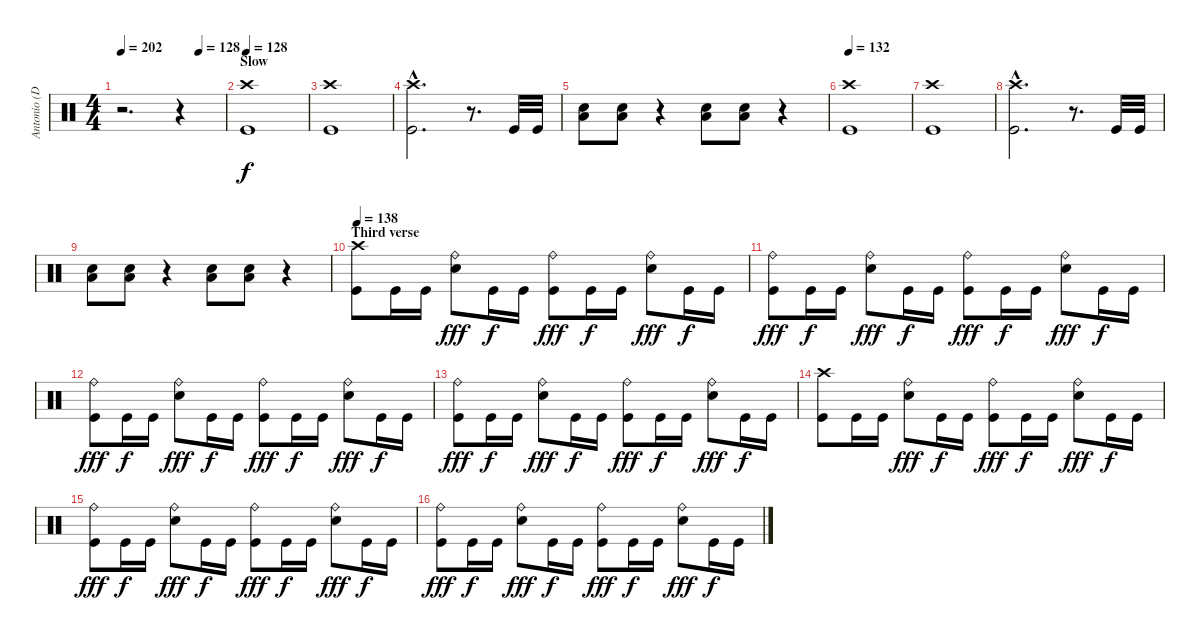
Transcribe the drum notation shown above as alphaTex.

\track ("Antonio (Drums)" "Antonio (D") {instrument percussion}
\staff {score}
\articulation defaults
\ts (4 4)
\tempo 202
\tempo (128 0.75)
\clef neutral
\ks c
r.2{d dy f} r.4 |
\section ("" "Slow")
\tempo 128
("Crash high (hit)" "Kick (hit)").1 |
("Crash high (hit)" "Kick (hit)").1 |
("Crash high (hit)"{hac} "Kick (hit)"{hac}).2{d} r.8{d} "Kick (hit)".32 "Kick (hit)".32 |
("Electric Snare (hit)" "Low Tom (hit)").8{bu 120} ("Electric Snare (hit)" "Low Tom (hit)").8{bu 120} r.4 ("Electric Snare (hit)" "Low Tom (hit)").8{bu 120} ("Electric Snare (hit)" "Low Tom (hit)").8{bu 120} r.4 |
\tempo 132
("Crash high (hit)" "Kick (hit)").1 |
("Crash high (hit)" "Kick (hit)").1 |
("Crash high (hit)"{hac} "Kick (hit)"{hac}).2{d} r.8{d} "Kick (hit)".32 "Kick (hit)".32 |
("Electric Snare (hit)" "Low Tom (hit)").8{bu 120} ("Electric Snare (hit)" "Low Tom (hit)").8{bu 120} r.4 ("Electric Snare (hit)" "Low Tom (hit)").8{bu 120} ("Electric Snare (hit)" "Low Tom (hit)").8{bu 120} r.4 |
\section ("" "Third verse")
\tempo 138
("Crash high (hit)" "Kick (hit)").8 "Kick (hit)".16 "Kick (hit)".16 ("Ride (bell)" "Electric Snare (hit)").8{dy fff} "Kick (hit)".16{dy f} "Kick (hit)".16 ("Ride (bell)" "Kick (hit)").8{dy fff} "Kick (hit)".16{dy f} "Kick (hit)".16 ("Ride (bell)" "Electric Snare (hit)").8{dy fff} "Kick (hit)".16{dy f} "Kick (hit)".16 |
("Ride (bell)" "Kick (hit)").8{dy fff} "Kick (hit)".16{dy f} "Kick (hit)".16 ("Ride (bell)" "Electric Snare (hit)").8{dy fff} "Kick (hit)".16{dy f} "Kick (hit)".16 ("Ride (bell)" "Kick (hit)").8{dy fff} "Kick (hit)".16{dy f} "Kick (hit)".16 ("Ride (bell)" "Electric Snare (hit)").8{dy fff} "Kick (hit)".16{dy f} "Kick (hit)".16 |
("Ride (bell)" "Kick (hit)").8{dy fff} "Kick (hit)".16{dy f} "Kick (hit)".16 ("Ride (bell)" "Electric Snare (hit)").8{dy fff} "Kick (hit)".16{dy f} "Kick (hit)".16 ("Ride (bell)" "Kick (hit)").8{dy fff} "Kick (hit)".16{dy f} "Kick (hit)".16 ("Ride (bell)" "Electric Snare (hit)").8{dy fff} "Kick (hit)".16{dy f} "Kick (hit)".16 |
("Ride (bell)" "Kick (hit)").8{dy fff} "Kick (hit)".16{dy f} "Kick (hit)".16 ("Ride (bell)" "Electric Snare (hit)").8{dy fff} "Kick (hit)".16{dy f} "Kick (hit)".16 ("Ride (bell)" "Kick (hit)").8{dy fff} "Kick (hit)".16{dy f} "Kick (hit)".16 ("Ride (bell)" "Electric Snare (hit)").8{dy fff} "Kick (hit)".16{dy f} "Kick (hit)".16 |
("Crash high (hit)" "Kick (hit)").8 "Kick (hit)".16 "Kick (hit)".16 ("Ride (bell)" "Electric Snare (hit)").8{dy fff} "Kick (hit)".16{dy f} "Kick (hit)".16 ("Ride (bell)" "Kick (hit)").8{dy fff} "Kick (hit)".16{dy f} "Kick (hit)".16 ("Ride (bell)" "Electric Snare (hit)").8{dy fff} "Kick (hit)".16{dy f} "Kick (hit)".16 |
("Ride (bell)" "Kick (hit)").8{dy fff} "Kick (hit)".16{dy f} "Kick (hit)".16 ("Ride (bell)" "Electric Snare (hit)").8{dy fff} "Kick (hit)".16{dy f} "Kick (hit)".16 ("Ride (bell)" "Kick (hit)").8{dy fff} "Kick (hit)".16{dy f} "Kick (hit)".16 ("Ride (bell)" "Electric Snare (hit)").8{dy fff} "Kick (hit)".16{dy f} "Kick (hit)".16 |
("Ride (bell)" "Kick (hit)").8{dy fff} "Kick (hit)".16{dy f} "Kick (hit)".16 ("Ride (bell)" "Electric Snare (hit)").8{dy fff} "Kick (hit)".16{dy f} "Kick (hit)".16 ("Ride (bell)" "Kick (hit)").8{dy fff} "Kick (hit)".16{dy f} "Kick (hit)".16 ("Ride (bell)" "Electric Snare (hit)").8{dy fff} "Kick (hit)".16{dy f} "Kick (hit)".16
